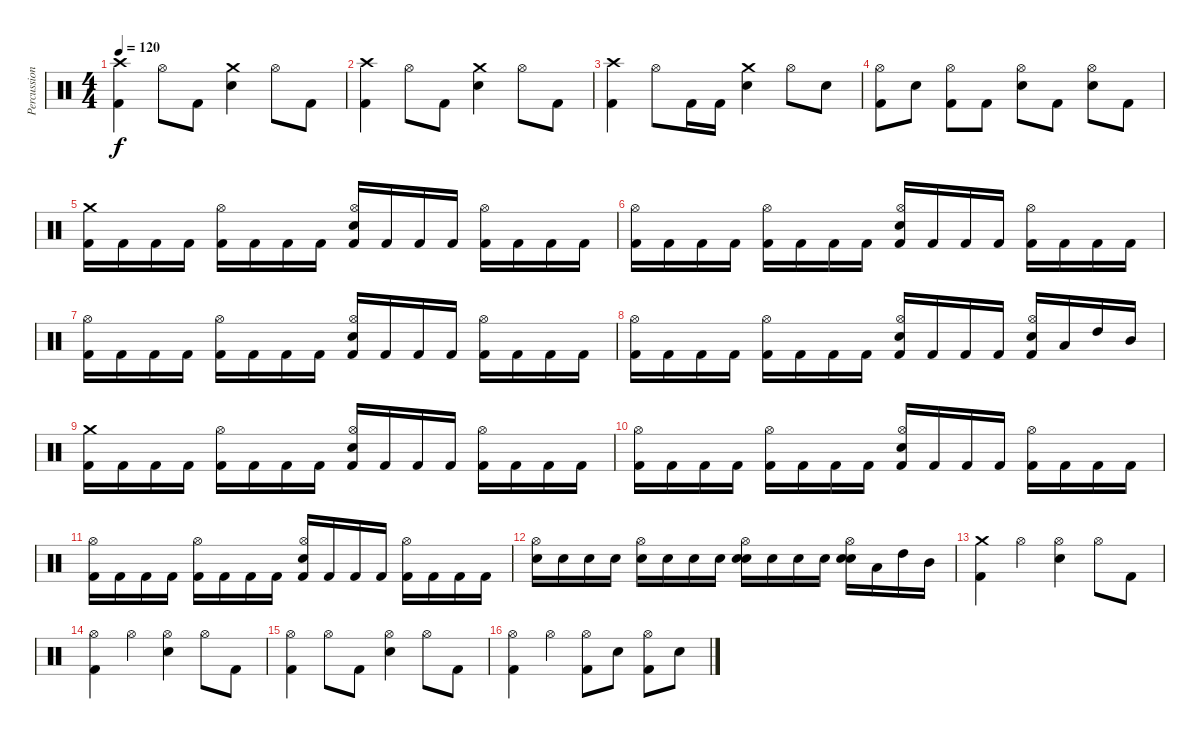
\track ("Percussions" "Percussion") {instrument percussion}
\staff {score}
\articulation defaults
\ts (4 4)
\tempo 120
\clef neutral
\ks c
("Crash high (hit)" "Kick (hit) 2").4{dy f} "Hi-Hat (open)".8 "Kick (hit) 2".8 ("Crash medium (hit)" "Electric Snare (hit)").4 "Hi-Hat (open)".8 "Kick (hit) 2".8 |
("Crash high (hit)" "Kick (hit) 2").4 "Hi-Hat (open)".8 "Kick (hit) 2".8 ("Crash medium (hit)" "Electric Snare (hit)").4 "Hi-Hat (open)".8 "Kick (hit) 2".8 |
("Crash high (hit)" "Kick (hit) 2").4 "Hi-Hat (open)".8 "Kick (hit) 2".16 "Kick (hit) 2".16 ("Crash medium (hit)" "Electric Snare (hit)").4 "Hi-Hat (open)".8 "Electric Snare (hit)".8 |
("Hi-Hat (open)" "Kick (hit) 2").8 "Electric Snare (hit)".8 ("Hi-Hat (open)" "Kick (hit) 2").8 "Kick (hit) 2".8 ("Hi-Hat (open)" "Electric Snare (hit)").8 "Kick (hit) 2".8 ("Hi-Hat (open)" "Electric Snare (hit)").8 "Kick (hit) 2".8 |
("Crash medium (hit)" "Kick (hit) 2").16 "Kick (hit) 2".16 "Kick (hit) 2".16 "Kick (hit) 2".16 ("Hi-Hat (open)" "Kick (hit) 2").16 "Kick (hit) 2".16 "Kick (hit) 2".16 "Kick (hit) 2".16 ("Hi-Hat (open)" "Electric Snare (hit)" "Kick (hit) 2").16 "Kick (hit) 2".16 "Kick (hit) 2".16 "Kick (hit) 2".16 ("Hi-Hat (open)" "Kick (hit) 2").16 "Kick (hit) 2".16 "Kick (hit) 2".16 "Kick (hit) 2".16 |
("Hi-Hat (open)" "Kick (hit) 2").16 "Kick (hit) 2".16 "Kick (hit) 2".16 "Kick (hit) 2".16 ("Hi-Hat (open)" "Kick (hit) 2").16 "Kick (hit) 2".16 "Kick (hit) 2".16 "Kick (hit) 2".16 ("Hi-Hat (open)" "Electric Snare (hit)" "Kick (hit) 2").16 "Kick (hit) 2".16 "Kick (hit) 2".16 "Kick (hit) 2".16 ("Hi-Hat (open)" "Kick (hit) 2").16 "Kick (hit) 2".16 "Kick (hit) 2".16 "Kick (hit) 2".16 |
("Hi-Hat (open)" "Kick (hit) 2").16 "Kick (hit) 2".16 "Kick (hit) 2".16 "Kick (hit) 2".16 ("Hi-Hat (open)" "Kick (hit) 2").16 "Kick (hit) 2".16 "Kick (hit) 2".16 "Kick (hit) 2".16 ("Hi-Hat (open)" "Electric Snare (hit)" "Kick (hit) 2").16 "Kick (hit) 2".16 "Kick (hit) 2".16 "Kick (hit) 2".16 ("Hi-Hat (open)" "Kick (hit) 2").16 "Kick (hit) 2".16 "Kick (hit) 2".16 "Kick (hit) 2".16 |
("Hi-Hat (open)" "Kick (hit) 2").16 "Kick (hit) 2".16 "Kick (hit) 2".16 "Kick (hit) 2".16 ("Hi-Hat (open)" "Kick (hit) 2").16 "Kick (hit) 2".16 "Kick (hit) 2".16 "Kick (hit) 2".16 ("Hi-Hat (open)" "Electric Snare (hit)" "Kick (hit) 2").16 "Kick (hit) 2".16 "Kick (hit) 2".16 "Kick (hit) 2".16 ("Hi-Hat (open)" "Electric Snare (hit)" "Kick (hit) 2").16 "Low Tom (hit)".16 "High Tom (hit)".16 "Mid Tom (hit)".16 |
("Crash medium (hit)" "Kick (hit) 2").16 "Kick (hit) 2".16 "Kick (hit) 2".16 "Kick (hit) 2".16 ("Hi-Hat (open)" "Kick (hit) 2").16 "Kick (hit) 2".16 "Kick (hit) 2".16 "Kick (hit) 2".16 ("Hi-Hat (open)" "Electric Snare (hit)" "Kick (hit) 2").16 "Kick (hit) 2".16 "Kick (hit) 2".16 "Kick (hit) 2".16 ("Hi-Hat (open)" "Kick (hit) 2").16 "Kick (hit) 2".16 "Kick (hit) 2".16 "Kick (hit) 2".16 |
("Hi-Hat (open)" "Kick (hit) 2").16 "Kick (hit) 2".16 "Kick (hit) 2".16 "Kick (hit) 2".16 ("Hi-Hat (open)" "Kick (hit) 2").16 "Kick (hit) 2".16 "Kick (hit) 2".16 "Kick (hit) 2".16 ("Hi-Hat (open)" "Electric Snare (hit)" "Kick (hit) 2").16 "Kick (hit) 2".16 "Kick (hit) 2".16 "Kick (hit) 2".16 ("Hi-Hat (open)" "Kick (hit) 2").16 "Kick (hit) 2".16 "Kick (hit) 2".16 "Kick (hit) 2".16 |
("Hi-Hat (open)" "Kick (hit) 2").16 "Kick (hit) 2".16 "Kick (hit) 2".16 "Kick (hit) 2".16 ("Hi-Hat (open)" "Kick (hit) 2").16 "Kick (hit) 2".16 "Kick (hit) 2".16 "Kick (hit) 2".16 ("Hi-Hat (open)" "Electric Snare (hit)" "Kick (hit) 2").16 "Kick (hit) 2".16 "Kick (hit) 2".16 "Kick (hit) 2".16 ("Hi-Hat (open)" "Kick (hit) 2").16 "Kick (hit) 2".16 "Kick (hit) 2".16 "Kick (hit) 2".16 |
("Hi-Hat (open)" "Electric Snare (hit)").16 "Electric Snare (hit)".16 "Electric Snare (hit)".16 "Electric Snare (hit)".16 ("Hi-Hat (open)" "Electric Snare (hit)").16 "Electric Snare (hit)".16 "Electric Snare (hit)".16 "Electric Snare (hit)".16 ("Hi-Hat (open)" "Electric Snare (hit)" "Electric Snare (hit)").16 "Electric Snare (hit)".16 "Electric Snare (hit)".16 "Electric Snare (hit)".16 ("Hi-Hat (open)" "Electric Snare (hit)" "Electric Snare (hit)").16 "Low Tom (hit)".16 "High Tom (hit)".16 "Mid Tom (hit)".16 |
("Crash medium (hit)" "Kick (hit) 2").4 "Hi-Hat (open)".4 ("Hi-Hat (open)" "Electric Snare (hit)").4 "Hi-Hat (open)".8 "Kick (hit) 2".8 |
("Hi-Hat (open)" "Kick (hit) 2").4 "Hi-Hat (open)".4 ("Hi-Hat (open)" "Electric Snare (hit)").4 "Hi-Hat (open)".8 "Kick (hit) 2".8 |
("Hi-Hat (open)" "Kick (hit) 2").4 "Hi-Hat (open)".8 "Kick (hit) 2".8 ("Hi-Hat (open)" "Electric Snare (hit)").4 "Hi-Hat (open)".8 "Kick (hit) 2".8 |
("Hi-Hat (open)" "Kick (hit) 2").4 "Hi-Hat (open)".4 ("Hi-Hat (open)" "Kick (hit) 2").8 "Electric Snare (hit)".8 ("Hi-Hat (open)" "Kick (hit) 2").8 "Electric Snare (hit)".8
